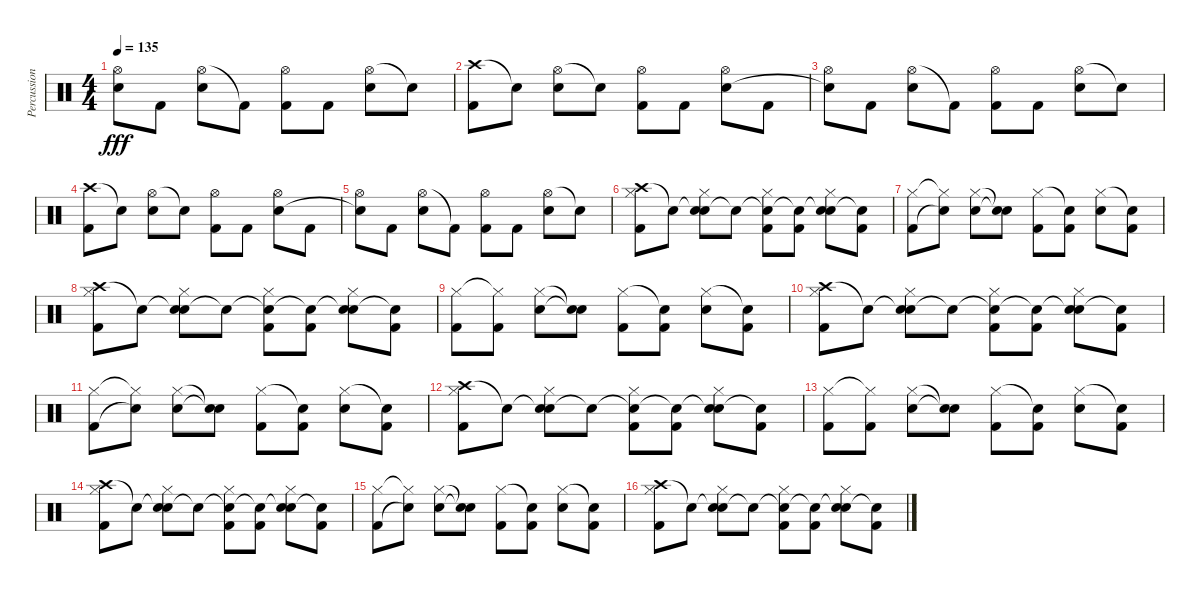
\track ("Percussion" "Percussion") {instrument percussion}
\staff {score}
\articulation defaults
\ts (4 4)
\tempo 135
\clef neutral
\ks c
("Hi-Hat (open)" "Snare (hit)"{t}).8{dy fff} "Kick (hit) 2".8 ("Hi-Hat (open)" "Electric Snare (hit)").8 "Kick (hit) 2"{t}.8 ("Hi-Hat (open)" "Kick (hit) 2").8 "Kick (hit) 2".8 ("Hi-Hat (open)" "Electric Snare (hit)").8 "Snare (hit)"{t}.8 |
("Crash high (hit)" "Kick (hit) 2").8 "Snare (hit)"{t}.8 ("Hi-Hat (open)" "Electric Snare (hit)").8 "Snare (hit)"{t}.8 ("Hi-Hat (open)" "Kick (hit) 2").8 "Kick (hit) 2".8 ("Hi-Hat (open)" "Electric Snare (hit)").8 "Kick (hit) 2".8 |
("Hi-Hat (open)" "Snare (hit)"{t}).8 "Kick (hit) 2".8 ("Hi-Hat (open)" "Electric Snare (hit)").8 "Kick (hit) 2"{t}.8 ("Hi-Hat (open)" "Kick (hit) 2").8 "Kick (hit) 2".8 ("Hi-Hat (open)" "Electric Snare (hit)").8 "Snare (hit)"{t}.8 |
("Crash high (hit)" "Kick (hit) 2").8 "Snare (hit)"{t}.8 ("Hi-Hat (open)" "Electric Snare (hit)").8 "Snare (hit)"{t}.8 ("Hi-Hat (open)" "Kick (hit) 2").8 "Kick (hit) 2".8 ("Hi-Hat (open)" "Electric Snare (hit)").8 "Kick (hit) 2".8 |
("Hi-Hat (open)" "Snare (hit)"{t}).8 "Kick (hit) 2".8 ("Hi-Hat (open)" "Electric Snare (hit)").8 "Kick (hit) 2"{t}.8 ("Hi-Hat (open)" "Kick (hit) 2").8 "Kick (hit) 2".8 ("Hi-Hat (open)" "Electric Snare (hit)").8 "Snare (hit)"{t}.8 |
("Crash high (hit)" "Kick (hit) 2" "Hi-Hat (closed)").8 "Snare (hit)"{t}.8 ("Snare (hit)"{t} "Electric Snare (hit)" "Hi-Hat (closed)").8 "Snare (hit)"{t}.8 ("Snare (hit)"{t} "Kick (hit) 2" "Hi-Hat (closed)").8 ("Snare (hit)"{t} "Kick (hit) 2").8 ("Snare (hit)"{t} "Electric Snare (hit)" "Hi-Hat (closed)").8 ("Snare (hit)"{t} "Kick (hit) 2").8 |
("Kick (hit) 2" "Hi-Hat (closed)").8 ("Snare (hit)"{t} "Hi-Hat (closed)"{t}).8 ("Electric Snare (hit)" "Hi-Hat (closed)").8 ("Snare (hit)"{t} "Snare (hit)"{t}).8 ("Kick (hit) 2" "Hi-Hat (closed)").8 ("Kick (hit) 2" "Snare (hit)"{t}).8 ("Electric Snare (hit)" "Hi-Hat (closed)").8 ("Kick (hit) 2" "Snare (hit)"{t}).8 |
("Crash high (hit)" "Kick (hit) 2" "Hi-Hat (closed)").8 "Snare (hit)"{t}.8 ("Snare (hit)"{t} "Electric Snare (hit)" "Hi-Hat (closed)").8 "Snare (hit)"{t}.8 ("Snare (hit)"{t} "Kick (hit) 2" "Hi-Hat (closed)").8 ("Snare (hit)"{t} "Kick (hit) 2").8 ("Snare (hit)"{t} "Electric Snare (hit)" "Hi-Hat (closed)").8 ("Snare (hit)"{t} "Kick (hit) 2").8 |
("Kick (hit) 2" "Hi-Hat (closed)").8 ("Kick (hit) 2" "Hi-Hat (closed)"{t}).8 ("Electric Snare (hit)" "Hi-Hat (closed)").8 ("Snare (hit)"{t} "Snare (hit)"{t}).8 ("Kick (hit) 2" "Hi-Hat (closed)").8 ("Kick (hit) 2" "Snare (hit)"{t}).8 ("Electric Snare (hit)" "Hi-Hat (closed)").8 ("Kick (hit) 2" "Snare (hit)"{t}).8 |
("Crash high (hit)" "Kick (hit) 2" "Hi-Hat (closed)").8 "Snare (hit)"{t}.8 ("Snare (hit)"{t} "Electric Snare (hit)" "Hi-Hat (closed)").8 "Snare (hit)"{t}.8 ("Snare (hit)"{t} "Kick (hit) 2" "Hi-Hat (closed)").8 ("Snare (hit)"{t} "Kick (hit) 2").8 ("Snare (hit)"{t} "Electric Snare (hit)" "Hi-Hat (closed)").8 ("Snare (hit)"{t} "Kick (hit) 2").8 |
("Kick (hit) 2" "Hi-Hat (closed)").8 ("Snare (hit)"{t} "Hi-Hat (closed)"{t}).8 ("Electric Snare (hit)" "Hi-Hat (closed)").8 ("Snare (hit)"{t} "Snare (hit)"{t}).8 ("Kick (hit) 2" "Hi-Hat (closed)").8 ("Kick (hit) 2" "Snare (hit)"{t}).8 ("Electric Snare (hit)" "Hi-Hat (closed)").8 ("Kick (hit) 2" "Snare (hit)"{t}).8 |
("Crash high (hit)" "Kick (hit) 2" "Hi-Hat (closed)").8 "Snare (hit)"{t}.8 ("Snare (hit)"{t} "Electric Snare (hit)" "Hi-Hat (closed)").8 "Snare (hit)"{t}.8 ("Snare (hit)"{t} "Kick (hit) 2" "Hi-Hat (closed)").8 ("Snare (hit)"{t} "Kick (hit) 2").8 ("Snare (hit)"{t} "Electric Snare (hit)" "Hi-Hat (closed)").8 ("Snare (hit)"{t} "Kick (hit) 2").8 |
("Kick (hit) 2" "Hi-Hat (closed)").8 ("Kick (hit) 2" "Hi-Hat (closed)"{t}).8 ("Electric Snare (hit)" "Hi-Hat (closed)").8 ("Snare (hit)"{t} "Snare (hit)"{t}).8 ("Kick (hit) 2" "Hi-Hat (closed)").8 ("Kick (hit) 2" "Snare (hit)"{t}).8 ("Electric Snare (hit)" "Hi-Hat (closed)").8 ("Kick (hit) 2" "Snare (hit)"{t}).8 |
("Crash high (hit)" "Kick (hit) 2" "Hi-Hat (closed)").8 "Snare (hit)"{t}.8 ("Snare (hit)"{t} "Electric Snare (hit)" "Hi-Hat (closed)").8 "Snare (hit)"{t}.8 ("Snare (hit)"{t} "Kick (hit) 2" "Hi-Hat (closed)").8 ("Snare (hit)"{t} "Kick (hit) 2").8 ("Snare (hit)"{t} "Electric Snare (hit)" "Hi-Hat (closed)").8 ("Snare (hit)"{t} "Kick (hit) 2").8 |
("Kick (hit) 2" "Hi-Hat (closed)").8 ("Snare (hit)"{t} "Hi-Hat (closed)"{t}).8 ("Electric Snare (hit)" "Hi-Hat (closed)").8 ("Snare (hit)"{t} "Snare (hit)"{t}).8 ("Kick (hit) 2" "Hi-Hat (closed)").8 ("Kick (hit) 2" "Snare (hit)"{t}).8 ("Electric Snare (hit)" "Hi-Hat (closed)").8 ("Kick (hit) 2" "Snare (hit)"{t}).8 |
("Crash high (hit)" "Kick (hit) 2" "Hi-Hat (closed)").8 "Snare (hit)"{t}.8 ("Snare (hit)"{t} "Electric Snare (hit)" "Hi-Hat (closed)").8 "Snare (hit)"{t}.8 ("Snare (hit)"{t} "Kick (hit) 2" "Hi-Hat (closed)").8 ("Snare (hit)"{t} "Kick (hit) 2").8 ("Snare (hit)"{t} "Electric Snare (hit)" "Hi-Hat (closed)").8 ("Snare (hit)"{t} "Kick (hit) 2").8
